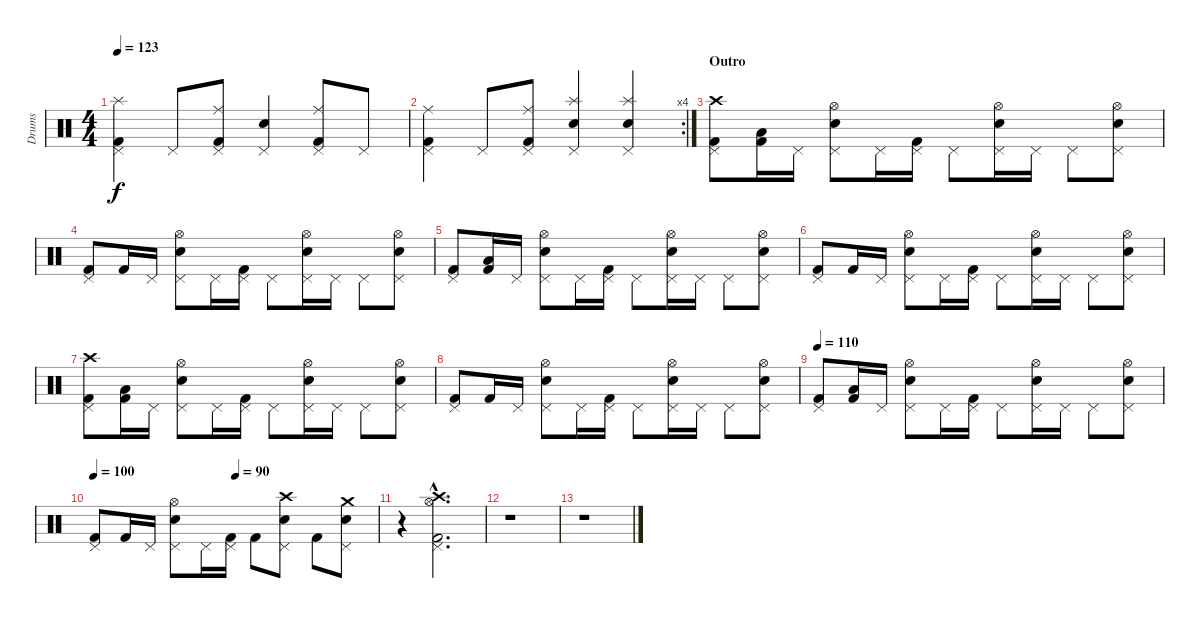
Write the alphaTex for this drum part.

\track ("Drums" "Drums") {instrument percussion}
\staff {score}
\articulation defaults
\ts (4 4)
\tempo 123
\clef neutral
\ks c
("Kick (hit) 2" "Pedal Hi-Hat (hit)" "Splash (hit)").4{dy f} "Pedal Hi-Hat (hit)".8 ("Kick (hit) 2" "Pedal Hi-Hat (hit)" "Ride (middle)").8 ("Snare (hit) 2" "Pedal Hi-Hat (hit)").4 ("Kick (hit) 2" "Pedal Hi-Hat (hit)" "Ride (middle)").8 "Pedal Hi-Hat (hit)".8 |
\rc 4
("Kick (hit) 2" "Pedal Hi-Hat (hit)" "Ride (middle)").4 "Pedal Hi-Hat (hit)".8 ("Kick (hit) 2" "Pedal Hi-Hat (hit)" "Ride (middle)").8 ("Snare (hit) 2" "Pedal Hi-Hat (hit)" "Splash (hit)").4 ("Snare (hit) 2" "Pedal Hi-Hat (hit)" "Splash (hit)").4 |
\section ("" "Outro")
("Kick (hit) 2" "Pedal Hi-Hat (hit)" "Crash high (hit)").8 ("Kick (hit) 2" "Low Tom (hit)").16 "Pedal Hi-Hat (hit)".16 ("Snare (hit) 2" "Pedal Hi-Hat (hit)" "Hi-Hat (open)").8 "Pedal Hi-Hat (hit)".16 ("Kick (hit) 2" "Pedal Hi-Hat (hit)").16 "Pedal Hi-Hat (hit)".8 ("Snare (hit) 2" "Pedal Hi-Hat (hit)" "Hi-Hat (open)").16 "Pedal Hi-Hat (hit)".16 "Pedal Hi-Hat (hit)".8 ("Snare (hit) 2" "Pedal Hi-Hat (hit)" "Hi-Hat (open)").8 |
("Kick (hit) 2" "Pedal Hi-Hat (hit)").8 "Kick (hit) 2".16 "Pedal Hi-Hat (hit)".16 ("Snare (hit) 2" "Pedal Hi-Hat (hit)" "Hi-Hat (open)").8 "Pedal Hi-Hat (hit)".16 ("Kick (hit) 2" "Pedal Hi-Hat (hit)").16 "Pedal Hi-Hat (hit)".8 ("Snare (hit) 2" "Pedal Hi-Hat (hit)" "Hi-Hat (open)").16 "Pedal Hi-Hat (hit)".16 "Pedal Hi-Hat (hit)".8 ("Snare (hit) 2" "Pedal Hi-Hat (hit)" "Hi-Hat (open)").8 |
("Kick (hit) 2" "Pedal Hi-Hat (hit)").8 ("Kick (hit) 2" "Low Tom (hit)").16 "Pedal Hi-Hat (hit)".16 ("Snare (hit) 2" "Pedal Hi-Hat (hit)" "Hi-Hat (open)").8 "Pedal Hi-Hat (hit)".16 ("Kick (hit) 2" "Pedal Hi-Hat (hit)").16 "Pedal Hi-Hat (hit)".8 ("Snare (hit) 2" "Pedal Hi-Hat (hit)" "Hi-Hat (open)").16 "Pedal Hi-Hat (hit)".16 "Pedal Hi-Hat (hit)".8 ("Snare (hit) 2" "Pedal Hi-Hat (hit)" "Hi-Hat (open)").8 |
("Kick (hit) 2" "Pedal Hi-Hat (hit)").8 "Kick (hit) 2".16 "Pedal Hi-Hat (hit)".16 ("Snare (hit) 2" "Pedal Hi-Hat (hit)" "Hi-Hat (open)").8 "Pedal Hi-Hat (hit)".16 ("Kick (hit) 2" "Pedal Hi-Hat (hit)").16 "Pedal Hi-Hat (hit)".8 ("Snare (hit) 2" "Pedal Hi-Hat (hit)" "Hi-Hat (open)").16 "Pedal Hi-Hat (hit)".16 "Pedal Hi-Hat (hit)".8 ("Snare (hit) 2" "Pedal Hi-Hat (hit)" "Hi-Hat (open)").8 |
("Kick (hit) 2" "Pedal Hi-Hat (hit)" "Crash high (hit)").8 ("Kick (hit) 2" "Low Tom (hit)").16 "Pedal Hi-Hat (hit)".16 ("Snare (hit) 2" "Pedal Hi-Hat (hit)" "Hi-Hat (open)").8 "Pedal Hi-Hat (hit)".16 ("Kick (hit) 2" "Pedal Hi-Hat (hit)").16 "Pedal Hi-Hat (hit)".8 ("Snare (hit) 2" "Pedal Hi-Hat (hit)" "Hi-Hat (open)").16 "Pedal Hi-Hat (hit)".16 "Pedal Hi-Hat (hit)".8 ("Snare (hit) 2" "Pedal Hi-Hat (hit)" "Hi-Hat (open)").8 |
("Kick (hit) 2" "Pedal Hi-Hat (hit)").8 "Kick (hit) 2".16 "Pedal Hi-Hat (hit)".16 ("Snare (hit) 2" "Pedal Hi-Hat (hit)" "Hi-Hat (open)").8 "Pedal Hi-Hat (hit)".16 ("Kick (hit) 2" "Pedal Hi-Hat (hit)").16 "Pedal Hi-Hat (hit)".8 ("Snare (hit) 2" "Pedal Hi-Hat (hit)" "Hi-Hat (open)").16 "Pedal Hi-Hat (hit)".16 "Pedal Hi-Hat (hit)".8 ("Snare (hit) 2" "Pedal Hi-Hat (hit)" "Hi-Hat (open)").8 |
\tempo 110
("Kick (hit) 2" "Pedal Hi-Hat (hit)").8 ("Kick (hit) 2" "Low Tom (hit)").16 "Pedal Hi-Hat (hit)".16 ("Snare (hit) 2" "Pedal Hi-Hat (hit)" "Hi-Hat (open)").8 "Pedal Hi-Hat (hit)".16 ("Kick (hit) 2" "Pedal Hi-Hat (hit)").16 "Pedal Hi-Hat (hit)".8 ("Snare (hit) 2" "Pedal Hi-Hat (hit)" "Hi-Hat (open)").16 "Pedal Hi-Hat (hit)".16 "Pedal Hi-Hat (hit)".8 ("Snare (hit) 2" "Pedal Hi-Hat (hit)" "Hi-Hat (open)").8 |
\tempo 100
\tempo (90 0.5)
("Kick (hit) 2" "Pedal Hi-Hat (hit)").8 "Kick (hit) 2".16 "Pedal Hi-Hat (hit)".16 ("Snare (hit) 2" "Pedal Hi-Hat (hit)" "Hi-Hat (open)").8 "Pedal Hi-Hat (hit)".16 ("Kick (hit) 2" "Pedal Hi-Hat (hit)").16 "Kick (hit) 2".8 ("Snare (hit) 2" "Pedal Hi-Hat (hit)" "Crash high (hit)").8 "Kick (hit) 2".8 ("Snare (hit) 2" "Pedal Hi-Hat (hit)" "Crash medium (hit)").8 |
r.4 ("Kick (hit) 2"{hac} "Pedal Hi-Hat (hit)"{hac} "Hi-Hat (open)"{hac} "Crash high (hit)"{hac}).2{d} |
r.1 |
r.1
